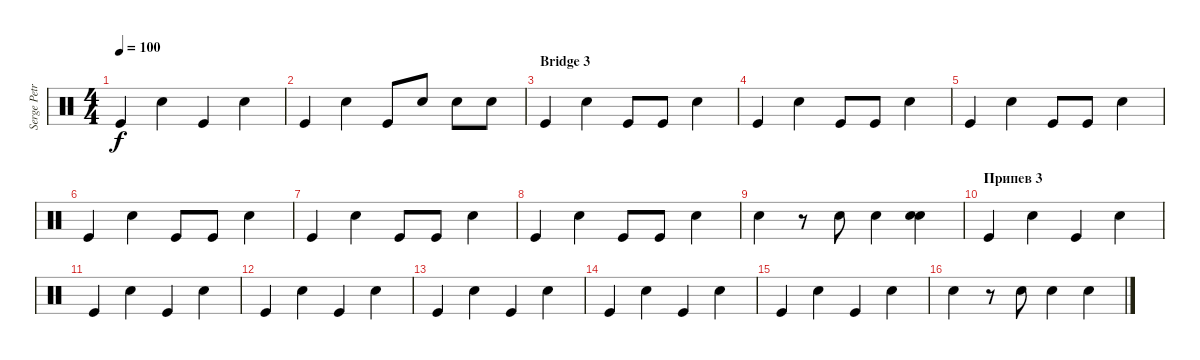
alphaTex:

\track ("Serge Petrone" "Serge Petr") {instrument percussion}
\staff {score}
\articulation defaults
\ts (4 4)
\tempo 100
\clef neutral
\ks c "Kick (hit)".4{dy f} "Snare (hit) 2".4 "Kick (hit)".4 "Snare (hit) 2".4
|
"Kick (hit)".4 "Snare (hit) 2".4 "Kick (hit)".8 "Snare (hit) 2".8 "Snare (hit) 2".8 "Snare (hit) 2".8 |
\section ("" "Bridge 3")
"Kick (hit)".4 "Snare (hit) 2".4 "Kick (hit)".8 "Kick (hit)".8 "Snare (hit) 2".4 |
"Kick (hit)".4 "Snare (hit) 2".4 "Kick (hit)".8 "Kick (hit)".8 "Snare (hit) 2".4 |
"Kick (hit)".4 "Snare (hit) 2".4 "Kick (hit)".8 "Kick (hit)".8 "Snare (hit) 2".4 |
"Kick (hit)".4 "Snare (hit) 2".4 "Kick (hit)".8 "Kick (hit)".8 "Snare (hit) 2".4 |
"Kick (hit)".4 "Snare (hit) 2".4 "Kick (hit)".8 "Kick (hit)".8 "Snare (hit) 2".4 |
"Kick (hit)".4 "Snare (hit) 2".4 "Kick (hit)".8 "Kick (hit)".8 "Snare (hit) 2".4 |
"Snare (hit) 2".4 r.8 "Snare (hit) 2".8{volume 16} "Snare (hit) 2".4 ("Snare (hit) 2" "Electric Snare (hit)").4 |
\section ("" "Припев 3")
"Kick (hit)".4 "Snare (hit) 2".4 "Kick (hit)".4 "Snare (hit) 2".4 |
"Kick (hit)".4 "Snare (hit) 2".4 "Kick (hit)".4 "Snare (hit) 2".4 |
"Kick (hit)".4 "Snare (hit) 2".4 "Kick (hit)".4 "Snare (hit) 2".4 |
"Kick (hit)".4 "Snare (hit) 2".4 "Kick (hit)".4 "Snare (hit) 2".4 |
"Kick (hit)".4 "Snare (hit) 2".4 "Kick (hit)".4 "Snare (hit) 2".4 |
"Kick (hit)".4 "Snare (hit) 2".4 "Kick (hit)".4 "Snare (hit) 2".4 |
"Snare (hit) 2".4 r.8 "Snare (hit) 2".8 "Snare (hit) 2".4 "Snare (hit) 2".4
